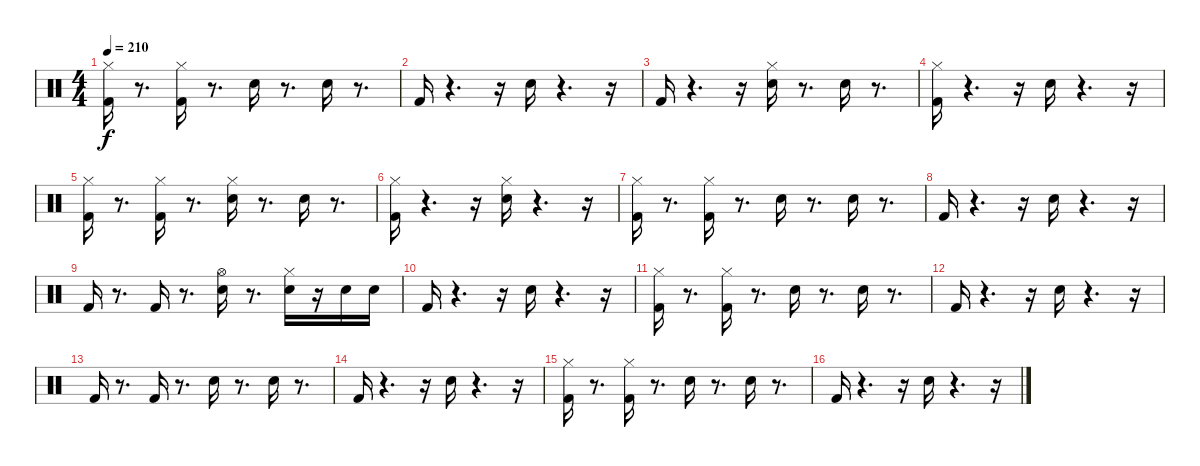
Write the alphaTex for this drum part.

\track "" {instrument percussion}
\staff {score}
\articulation defaults
\ts (4 4)
\tempo 210
\clef neutral
\ks c
("Hi-Hat (closed)" "Kick (hit) 2").16{dy f} r.8{d} ("Hi-Hat (closed)" "Kick (hit) 2").16 r.8{d} "Snare (hit) 2".16 r.8{d} "Snare (hit) 2".16 r.8{d} |
"Kick (hit) 2".16 r.4{d} r.16 "Snare (hit) 2".16 r.4{d} r.16 |
"Kick (hit) 2".16 r.4{d} r.16 ("Hi-Hat (closed)" "Snare (hit) 2").16 r.8{d} "Snare (hit) 2".16 r.8{d} |
("Hi-Hat (closed)" "Kick (hit) 2").16 r.4{d} r.16 "Snare (hit) 2".16 r.4{d} r.16 |
("Hi-Hat (closed)" "Kick (hit) 2").16 r.8{d} ("Hi-Hat (closed)" "Kick (hit) 2").16 r.8{d} ("Hi-Hat (closed)" "Snare (hit) 2").16 r.8{d} "Snare (hit) 2".16 r.8{d} |
("Hi-Hat (closed)" "Kick (hit) 2").16 r.4{d} r.16 ("Hi-Hat (closed)" "Snare (hit) 2").16 r.4{d} r.16 |
("Hi-Hat (closed)" "Kick (hit) 2").16 r.8{d} ("Hi-Hat (closed)" "Kick (hit) 2").16 r.8{d} "Snare (hit) 2".16 r.8{d} "Snare (hit) 2".16 r.8{d} |
"Kick (hit) 2".16 r.4{d} r.16 "Snare (hit) 2".16 r.4{d} r.16 |
"Kick (hit) 2".16 r.8{d} "Kick (hit) 2".16 r.8{d} ("Hi-Hat (open)" "Snare (hit) 2").16 r.8{d} ("Hi-Hat (closed)" "Snare (hit) 2").16 r.16 "Snare (hit) 2".16 "Snare (hit) 2".16 |
"Kick (hit) 2".16 r.4{d} r.16 "Snare (hit) 2".16 r.4{d} r.16 |
("Hi-Hat (closed)" "Kick (hit) 2").16 r.8{d} ("Hi-Hat (closed)" "Kick (hit) 2").16 r.8{d} "Snare (hit) 2".16 r.8{d} "Snare (hit) 2".16 r.8{d} |
"Kick (hit) 2".16 r.4{d} r.16 "Snare (hit) 2".16 r.4{d} r.16 |
"Kick (hit) 2".16 r.8{d} "Kick (hit) 2".16 r.8{d} "Snare (hit) 2".16 r.8{d} "Snare (hit) 2".16 r.8{d} |
"Kick (hit) 2".16 r.4{d} r.16 "Snare (hit) 2".16 r.4{d} r.16 |
("Hi-Hat (closed)" "Kick (hit) 2").16 r.8{d} ("Hi-Hat (closed)" "Kick (hit) 2").16 r.8{d} "Snare (hit) 2".16 r.8{d} "Snare (hit) 2".16 r.8{d} |
"Kick (hit) 2".16 r.4{d} r.16 "Snare (hit) 2".16 r.4{d} r.16
